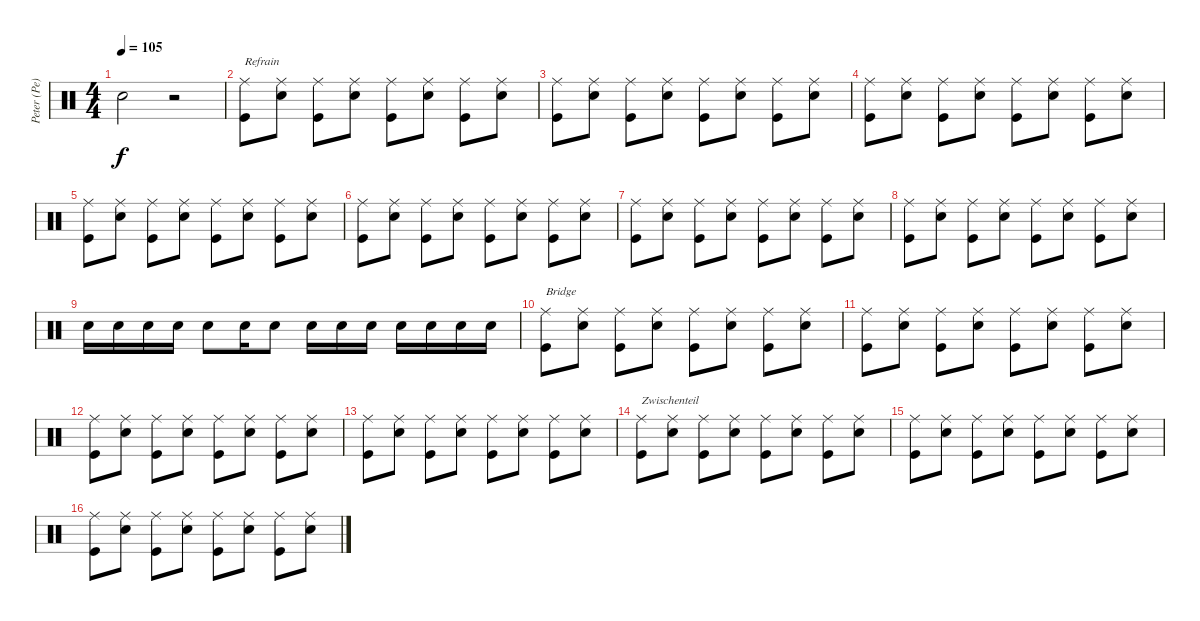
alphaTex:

\track ("Peter (Pe) Schorowsky" "Peter (Pe)") {instrument percussion}
\staff {score}
\articulation defaults
\ts (4 4)
\tempo 105
\clef neutral
\ks c "Snare (hit) 2".2{dy f}
r.2 |
("Ride (middle)" "Kick (hit)").8{txt "Refrain"} ("Ride (middle)" "Snare (hit) 2").8 ("Ride (middle)" "Kick (hit)").8 ("Ride (middle)" "Snare (hit) 2").8 ("Ride (middle)" "Kick (hit)").8 ("Ride (middle)" "Snare (hit) 2").8 ("Ride (middle)" "Kick (hit)").8 ("Ride (middle)" "Snare (hit) 2").8 |
("Ride (middle)" "Kick (hit)").8 ("Ride (middle)" "Snare (hit) 2").8 ("Ride (middle)" "Kick (hit)").8 ("Ride (middle)" "Snare (hit) 2").8 ("Ride (middle)" "Kick (hit)").8 ("Ride (middle)" "Snare (hit) 2").8 ("Ride (middle)" "Kick (hit)").8 ("Ride (middle)" "Snare (hit) 2").8 |
("Ride (middle)" "Kick (hit)").8 ("Ride (middle)" "Snare (hit) 2").8 ("Ride (middle)" "Kick (hit)").8 ("Ride (middle)" "Snare (hit) 2").8 ("Ride (middle)" "Kick (hit)").8 ("Ride (middle)" "Snare (hit) 2").8 ("Ride (middle)" "Kick (hit)").8 ("Ride (middle)" "Snare (hit) 2").8 |
("Ride (middle)" "Kick (hit)").8 ("Ride (middle)" "Snare (hit) 2").8 ("Ride (middle)" "Kick (hit)").8 ("Ride (middle)" "Snare (hit) 2").8 ("Ride (middle)" "Kick (hit)").8 ("Ride (middle)" "Snare (hit) 2").8 ("Ride (middle)" "Kick (hit)").8 ("Ride (middle)" "Snare (hit) 2").8 |
("Ride (middle)" "Kick (hit)").8 ("Ride (middle)" "Snare (hit) 2").8 ("Ride (middle)" "Kick (hit)").8 ("Ride (middle)" "Snare (hit) 2").8 ("Ride (middle)" "Kick (hit)").8 ("Ride (middle)" "Snare (hit) 2").8 ("Ride (middle)" "Kick (hit)").8 ("Ride (middle)" "Snare (hit) 2").8 |
("Ride (middle)" "Kick (hit)").8 ("Ride (middle)" "Snare (hit) 2").8 ("Ride (middle)" "Kick (hit)").8 ("Ride (middle)" "Snare (hit) 2").8 ("Ride (middle)" "Kick (hit)").8 ("Ride (middle)" "Snare (hit) 2").8 ("Ride (middle)" "Kick (hit)").8 ("Ride (middle)" "Snare (hit) 2").8 |
("Ride (middle)" "Kick (hit)").8 ("Ride (middle)" "Snare (hit) 2").8 ("Ride (middle)" "Kick (hit)").8 ("Ride (middle)" "Snare (hit) 2").8 ("Ride (middle)" "Kick (hit)").8 ("Ride (middle)" "Snare (hit) 2").8 ("Ride (middle)" "Kick (hit)").8 ("Ride (middle)" "Snare (hit) 2").8 |
"Snare (hit) 2".16 "Snare (hit) 2".16 "Snare (hit) 2".16 "Snare (hit) 2".16 "Snare (hit) 2".8 "Snare (hit) 2".16 "Snare (hit) 2".8 "Snare (hit) 2".16 "Snare (hit) 2".16 "Snare (hit) 2".16 "Snare (hit) 2".16 "Snare (hit) 2".16 "Snare (hit) 2".16 "Snare (hit) 2".16 |
("Ride (middle)" "Kick (hit)").8{txt "Bridge"} ("Ride (middle)" "Snare (hit) 2").8 ("Ride (middle)" "Kick (hit)").8 ("Ride (middle)" "Snare (hit) 2").8 ("Ride (middle)" "Kick (hit)").8 ("Ride (middle)" "Snare (hit) 2").8 ("Ride (middle)" "Kick (hit)").8 ("Ride (middle)" "Snare (hit) 2").8 |
("Ride (middle)" "Kick (hit)").8 ("Ride (middle)" "Snare (hit) 2").8 ("Ride (middle)" "Kick (hit)").8 ("Ride (middle)" "Snare (hit) 2").8 ("Ride (middle)" "Kick (hit)").8 ("Ride (middle)" "Snare (hit) 2").8 ("Ride (middle)" "Kick (hit)").8 ("Ride (middle)" "Snare (hit) 2").8 |
("Ride (middle)" "Kick (hit)").8 ("Ride (middle)" "Snare (hit) 2").8 ("Ride (middle)" "Kick (hit)").8 ("Ride (middle)" "Snare (hit) 2").8 ("Ride (middle)" "Kick (hit)").8 ("Ride (middle)" "Snare (hit) 2").8 ("Ride (middle)" "Kick (hit)").8 ("Ride (middle)" "Snare (hit) 2").8 |
("Ride (middle)" "Kick (hit)").8 ("Ride (middle)" "Snare (hit) 2").8 ("Ride (middle)" "Kick (hit)").8 ("Ride (middle)" "Snare (hit) 2").8 ("Ride (middle)" "Kick (hit)").8 ("Ride (middle)" "Snare (hit) 2").8 ("Ride (middle)" "Kick (hit)").8 ("Ride (middle)" "Snare (hit) 2").8 |
("Ride (middle)" "Kick (hit)").8{txt "Zwischenteil"} ("Ride (middle)" "Snare (hit) 2").8 ("Ride (middle)" "Kick (hit)").8 ("Ride (middle)" "Snare (hit) 2").8 ("Ride (middle)" "Kick (hit)").8 ("Ride (middle)" "Snare (hit) 2").8 ("Ride (middle)" "Kick (hit)").8 ("Ride (middle)" "Snare (hit) 2").8 |
("Ride (middle)" "Kick (hit)").8 ("Ride (middle)" "Snare (hit) 2").8 ("Ride (middle)" "Kick (hit)").8 ("Ride (middle)" "Snare (hit) 2").8 ("Ride (middle)" "Kick (hit)").8 ("Ride (middle)" "Snare (hit) 2").8 ("Ride (middle)" "Kick (hit)").8 ("Ride (middle)" "Snare (hit) 2").8 |
("Ride (middle)" "Kick (hit)").8 ("Ride (middle)" "Snare (hit) 2").8 ("Ride (middle)" "Kick (hit)").8 ("Ride (middle)" "Snare (hit) 2").8 ("Ride (middle)" "Kick (hit)").8 ("Ride (middle)" "Snare (hit) 2").8 ("Ride (middle)" "Kick (hit)").8 ("Ride (middle)" "Snare (hit) 2").8
